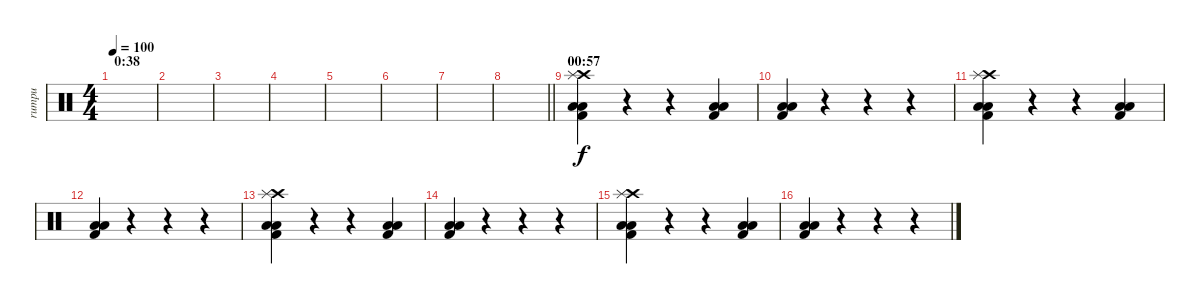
\track ("rumpu" "rumpu") {instrument percussion}
\staff {score}
\articulation defaults
\ts (4 4)
\section ("" "0:38")
\tempo 100
\clef neutral
\ks c
|
|
|
|
|
|
|
\barLineRight lightlight
|
\section ("" "00:57")
("Kick (hit) 2" "Low Tom (hit)" "Low Floor Tom (hit)" "Crash high (hit)" "Splash (hit)").4 r.4 r.4 ("Kick (hit) 2" "Low Tom (hit)" "Low Floor Tom (hit)").4 |
("Kick (hit) 2" "Low Tom (hit)" "Low Floor Tom (hit)").4 r.4 r.4 r.4 |
("Kick (hit) 2" "Low Tom (hit)" "Low Floor Tom (hit)" "Crash high (hit)" "Splash (hit)").4 r.4 r.4 ("Kick (hit) 2" "Low Tom (hit)" "Low Floor Tom (hit)").4 |
("Kick (hit) 2" "Low Tom (hit)" "Low Floor Tom (hit)").4 r.4 r.4 r.4 |
("Kick (hit) 2" "Low Tom (hit)" "Low Floor Tom (hit)" "Crash high (hit)" "Splash (hit)").4 r.4 r.4 ("Kick (hit) 2" "Low Tom (hit)" "Low Floor Tom (hit)").4 |
("Kick (hit) 2" "Low Tom (hit)" "Low Floor Tom (hit)").4 r.4 r.4 r.4 |
("Kick (hit) 2" "Low Tom (hit)" "Low Floor Tom (hit)" "Crash high (hit)" "Splash (hit)").4 r.4 r.4 ("Kick (hit) 2" "Low Tom (hit)" "Low Floor Tom (hit)").4 |
("Kick (hit) 2" "Low Tom (hit)" "Low Floor Tom (hit)").4 r.4 r.4 r.4
